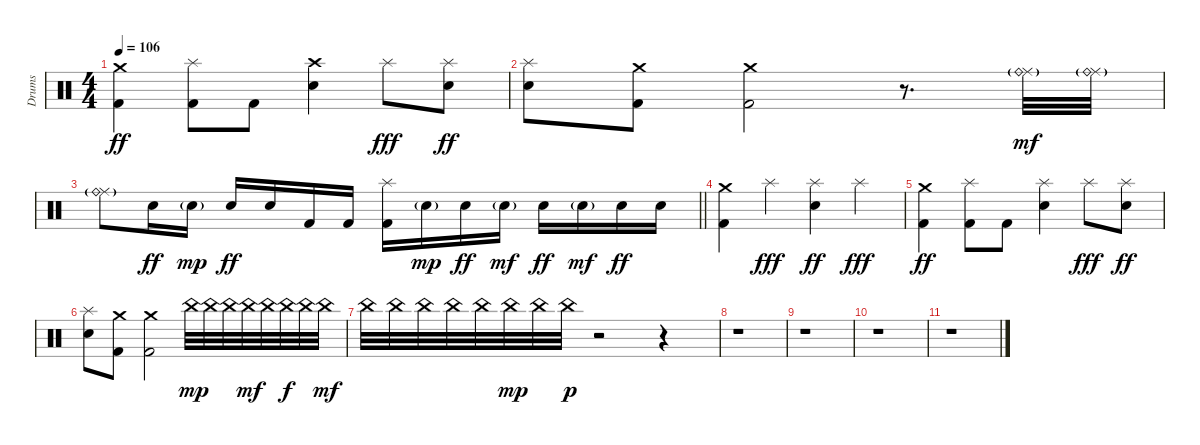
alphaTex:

\track ("Drums" "Drums") {instrument percussion}
\staff {score}
\articulation defaults
\ts (4 4)
\tempo 106
\clef neutral
\ks c
("Crash medium (hit)" "Kick (hit) 2").4{dy ff} ("Splash (hit)" "Kick (hit) 2").8 "Kick (hit) 2".8 ("Crash high (hit)" "Electric Snare (hit)").4 "Splash (hit)".8{dy fff} ("Splash (hit)" "Electric Snare (hit)").8{dy ff} |
("Splash (hit)" "Electric Snare (hit)").8 ("Crash medium (hit)" "Kick (hit) 2").8 ("Crash medium (hit)" "Kick (hit) 2").2 r.8{d} ("Ride (middle)" "Ride (bell)"{g}).32{dy mf} ("Ride (middle)" "Ride (bell)"{g}).32 |
\barLineRight lightlight
("Ride (middle)" "Ride (bell)"{g}).8 "Electric Snare (hit)".16{dy ff} "Electric Snare (hit)"{g}.16{dy mp} "Electric Snare (hit)".16{dy ff} "Electric Snare (hit)".16 "Kick (hit) 2".16 "Kick (hit) 2".16 ("Splash (hit)" "Kick (hit) 2").16 "Electric Snare (hit)"{g}.16{dy mp} "Electric Snare (hit)".16{dy ff} "Electric Snare (hit)"{g}.16{dy mf} "Electric Snare (hit)".16{dy ff} "Electric Snare (hit)"{g}.16{dy mf} "Electric Snare (hit)".16{dy ff} "Electric Snare (hit)".16 |
("Crash medium (hit)" "Kick (hit) 2").4 "Splash (hit)".4{dy fff} ("Splash (hit)" "Electric Snare (hit)").4{dy ff} "Splash (hit)".4{dy fff} |
("Crash medium (hit)" "Kick (hit) 2").4{dy ff} ("Splash (hit)" "Kick (hit) 2").8 "Kick (hit) 2".8 ("Splash (hit)" "Electric Snare (hit)").4 "Splash (hit)".8{dy fff} ("Splash (hit)" "Electric Snare (hit)").8{dy ff} |
("Splash (hit)" "Electric Snare (hit)").8 ("Crash medium (hit)" "Kick (hit) 2").8 ("Crash medium (hit)" "Kick (hit) 2").2 "China (hit)".32{dy mp} "China (hit)".32 "China (hit)".32 "China (hit)".32{dy mf} "China (hit)".32 "China (hit)".32{dy f} "China (hit)".32 "China (hit)".32{dy mf} |
"China (hit)".32 "China (hit)".32 "China (hit)".32 "China (hit)".32 "China (hit)".32 "China (hit)".32{dy mp} "China (hit)".32 "China (hit)".32{dy p} r.2 r.4 |
r.1 |
r.1 |
r.1 |
r.1
